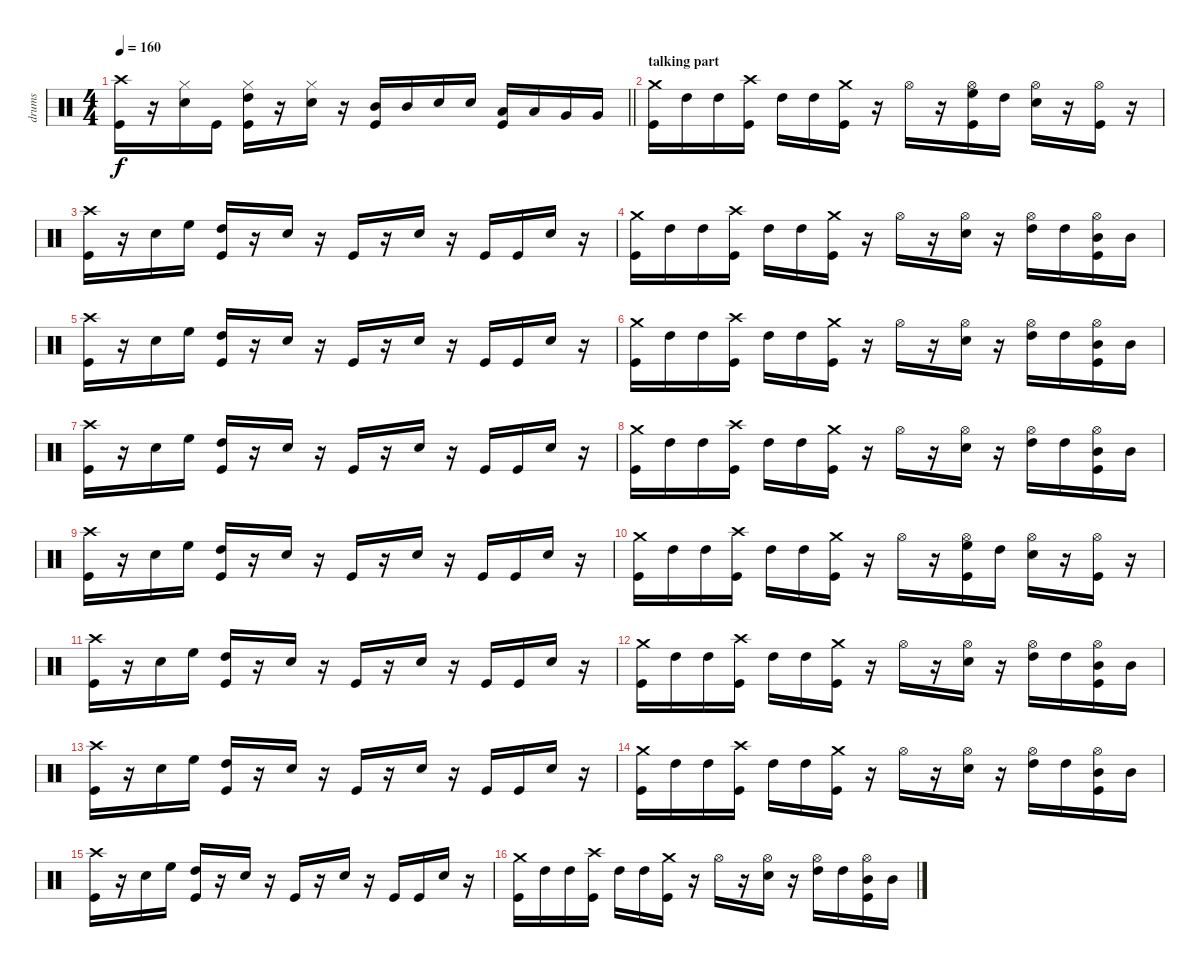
\track ("drums" "drums") {instrument percussion}
\staff {score}
\articulation defaults
\ts (4 4)
\tempo 160
\clef neutral
\barLineRight lightlight
\ks c
("Crash high (hit)" "Kick (hit)").16{dy f} r.16 ("Hi-Hat (closed)" "Electric Snare (hit)").16 "Kick (hit)".16 ("Hi-Hat (closed)" "High Tom (hit)" "Kick (hit)").16 r.16 ("Hi-Hat (closed)" "Electric Snare (hit)").16 r.16 ("Mid Tom (hit)" "Kick (hit)").16 "Mid Tom (hit)".16 "Electric Snare (hit)".16 "Electric Snare (hit)".16 ("Low Tom (hit)" "Kick (hit)").16 "Low Tom (hit)".16 "Very Low Tom (hit)".16 "Very Low Tom (hit)".16 |
\section ("" "talking part")
("Crash medium (hit)" "Kick (hit)").16 "High Tom (hit)".16 "High Tom (hit)".16 ("Crash high (hit)" "Kick (hit)").16 "High Tom (hit)".16 "High Tom (hit)".16 ("Crash medium (hit)" "Kick (hit)").16 r.16 "Hi-Hat (open)".16 r.16 ("Hi-Hat (open)" "High Floor Tom (hit)" "Kick (hit)").16 "High Tom (hit)".16 ("Hi-Hat (open)" "Electric Snare (hit)").16 r.16 ("Hi-Hat (open)" "Kick (hit)").16 r.16 |
("Crash high (hit)" "Kick (hit)").16 r.16 "Electric Snare (hit)".16 "High Floor Tom (hit)".16 ("High Tom (hit)" "Kick (hit)").16 r.16 "Electric Snare (hit)".16 r.16 "Kick (hit)".16 r.16 "Electric Snare (hit)".16 r.16 "Kick (hit)".16 "Kick (hit)".16 "Electric Snare (hit)".16 r.16 |
("Crash medium (hit)" "Kick (hit)").16 "High Tom (hit)".16 "High Tom (hit)".16 ("Crash high (hit)" "Kick (hit)").16 "High Tom (hit)".16 "High Tom (hit)".16 ("Crash medium (hit)" "Kick (hit)").16 r.16 "Hi-Hat (open)".16 r.16 ("Hi-Hat (open)" "Electric Snare (hit)").16 r.16 ("Hi-Hat (open)" "High Tom (hit)").16 "High Tom (hit)".16 ("Hi-Hat (open)" "Mid Tom (hit)" "Kick (hit)").16 "Mid Tom (hit)".16 |
("Crash high (hit)" "Kick (hit)").16 r.16 "Electric Snare (hit)".16 "High Floor Tom (hit)".16 ("High Tom (hit)" "Kick (hit)").16 r.16 "Electric Snare (hit)".16 r.16 "Kick (hit)".16 r.16 "Electric Snare (hit)".16 r.16 "Kick (hit)".16 "Kick (hit)".16 "Electric Snare (hit)".16 r.16 |
("Crash medium (hit)" "Kick (hit)").16 "High Tom (hit)".16 "High Tom (hit)".16 ("Crash high (hit)" "Kick (hit)").16 "High Tom (hit)".16 "High Tom (hit)".16 ("Crash medium (hit)" "Kick (hit)").16 r.16 "Hi-Hat (open)".16 r.16 ("Hi-Hat (open)" "Electric Snare (hit)").16 r.16 ("Hi-Hat (open)" "High Tom (hit)").16 "High Tom (hit)".16 ("Hi-Hat (open)" "Mid Tom (hit)" "Kick (hit)").16 "Mid Tom (hit)".16 |
("Crash high (hit)" "Kick (hit)").16 r.16 "Electric Snare (hit)".16 "High Floor Tom (hit)".16 ("High Tom (hit)" "Kick (hit)").16 r.16 "Electric Snare (hit)".16 r.16 "Kick (hit)".16 r.16 "Electric Snare (hit)".16 r.16 "Kick (hit)".16 "Kick (hit)".16 "Electric Snare (hit)".16 r.16 |
("Crash medium (hit)" "Kick (hit)").16 "High Tom (hit)".16 "High Tom (hit)".16 ("Crash high (hit)" "Kick (hit)").16 "High Tom (hit)".16 "High Tom (hit)".16 ("Crash medium (hit)" "Kick (hit)").16 r.16 "Hi-Hat (open)".16 r.16 ("Hi-Hat (open)" "Electric Snare (hit)").16 r.16 ("Hi-Hat (open)" "High Tom (hit)").16 "High Tom (hit)".16 ("Hi-Hat (open)" "Mid Tom (hit)" "Kick (hit)").16 "Mid Tom (hit)".16 |
("Crash high (hit)" "Kick (hit)").16 r.16 "Electric Snare (hit)".16 "High Floor Tom (hit)".16 ("High Tom (hit)" "Kick (hit)").16 r.16 "Electric Snare (hit)".16 r.16 "Kick (hit)".16 r.16 "Electric Snare (hit)".16 r.16 "Kick (hit)".16 "Kick (hit)".16 "Electric Snare (hit)".16 r.16 |
("Crash medium (hit)" "Kick (hit)").16 "High Tom (hit)".16 "High Tom (hit)".16 ("Crash high (hit)" "Kick (hit)").16 "High Tom (hit)".16 "High Tom (hit)".16 ("Crash medium (hit)" "Kick (hit)").16 r.16 "Hi-Hat (open)".16 r.16 ("Hi-Hat (open)" "High Floor Tom (hit)" "Kick (hit)").16 "High Tom (hit)".16 ("Hi-Hat (open)" "Electric Snare (hit)").16 r.16 ("Hi-Hat (open)" "Kick (hit)").16 r.16 |
("Crash high (hit)" "Kick (hit)").16 r.16 "Electric Snare (hit)".16 "High Floor Tom (hit)".16 ("High Tom (hit)" "Kick (hit)").16 r.16 "Electric Snare (hit)".16 r.16 "Kick (hit)".16 r.16 "Electric Snare (hit)".16 r.16 "Kick (hit)".16 "Kick (hit)".16 "Electric Snare (hit)".16 r.16 |
("Crash medium (hit)" "Kick (hit)").16 "High Tom (hit)".16 "High Tom (hit)".16 ("Crash high (hit)" "Kick (hit)").16 "High Tom (hit)".16 "High Tom (hit)".16 ("Crash medium (hit)" "Kick (hit)").16 r.16 "Hi-Hat (open)".16 r.16 ("Hi-Hat (open)" "Electric Snare (hit)").16 r.16 ("Hi-Hat (open)" "High Tom (hit)").16 "High Tom (hit)".16 ("Hi-Hat (open)" "Mid Tom (hit)" "Kick (hit)").16 "Mid Tom (hit)".16 |
("Crash high (hit)" "Kick (hit)").16 r.16 "Electric Snare (hit)".16 "High Floor Tom (hit)".16 ("High Tom (hit)" "Kick (hit)").16 r.16 "Electric Snare (hit)".16 r.16 "Kick (hit)".16 r.16 "Electric Snare (hit)".16 r.16 "Kick (hit)".16 "Kick (hit)".16 "Electric Snare (hit)".16 r.16 |
("Crash medium (hit)" "Kick (hit)").16 "High Tom (hit)".16 "High Tom (hit)".16 ("Crash high (hit)" "Kick (hit)").16 "High Tom (hit)".16 "High Tom (hit)".16 ("Crash medium (hit)" "Kick (hit)").16 r.16 "Hi-Hat (open)".16 r.16 ("Hi-Hat (open)" "Electric Snare (hit)").16 r.16 ("Hi-Hat (open)" "High Tom (hit)").16 "High Tom (hit)".16 ("Hi-Hat (open)" "Mid Tom (hit)" "Kick (hit)").16 "Mid Tom (hit)".16 |
("Crash high (hit)" "Kick (hit)").16 r.16 "Electric Snare (hit)".16 "High Floor Tom (hit)".16 ("High Tom (hit)" "Kick (hit)").16 r.16 "Electric Snare (hit)".16 r.16 "Kick (hit)".16 r.16 "Electric Snare (hit)".16 r.16 "Kick (hit)".16 "Kick (hit)".16 "Electric Snare (hit)".16 r.16 |
("Crash medium (hit)" "Kick (hit)").16 "High Tom (hit)".16 "High Tom (hit)".16 ("Crash high (hit)" "Kick (hit)").16 "High Tom (hit)".16 "High Tom (hit)".16 ("Crash medium (hit)" "Kick (hit)").16 r.16 "Hi-Hat (open)".16 r.16 ("Hi-Hat (open)" "Electric Snare (hit)").16 r.16 ("Hi-Hat (open)" "High Tom (hit)").16 "High Tom (hit)".16 ("Hi-Hat (open)" "Mid Tom (hit)" "Kick (hit)").16 "Mid Tom (hit)".16
